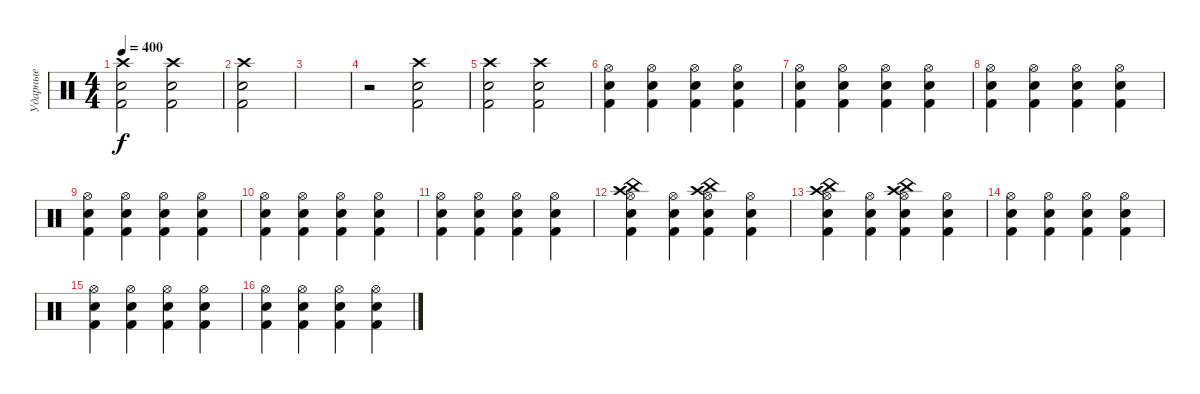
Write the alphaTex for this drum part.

\track ("Ударные" "Ударные") {instrument percussion}
\staff {score}
\articulation defaults
\ts (4 4)
\tempo 400
\clef neutral
\ks c
("Kick (hit) 2" "Electric Snare (hit)" "Crash high (hit)").2{dy f} ("Kick (hit) 2" "Electric Snare (hit)" "Crash high (hit)").2 |
("Kick (hit) 2" "Electric Snare (hit)" "Crash high (hit)").2 |
|
r.2 ("Electric Snare (hit)" "Crash high (hit)" "Kick (hit) 2").2 |
("Crash high (hit)" "Kick (hit) 2" "Electric Snare (hit)").2 ("Electric Snare (hit)" "Kick (hit) 2" "Crash high (hit)").2 |
("Kick (hit) 2" "Hi-Hat (open)" "Electric Snare (hit)").4 ("Hi-Hat (open)" "Kick (hit) 2" "Electric Snare (hit)").4 ("Electric Snare (hit)" "Kick (hit) 2" "Hi-Hat (open)").4 ("Hi-Hat (open)" "Kick (hit) 2" "Electric Snare (hit)").4 |
("Kick (hit) 2" "Hi-Hat (open)" "Electric Snare (hit)").4 ("Hi-Hat (open)" "Kick (hit) 2" "Electric Snare (hit)").4 ("Electric Snare (hit)" "Kick (hit) 2" "Hi-Hat (open)").4 ("Hi-Hat (open)" "Kick (hit) 2" "Electric Snare (hit)").4 |
("Kick (hit) 2" "Hi-Hat (open)" "Electric Snare (hit)").4 ("Hi-Hat (open)" "Kick (hit) 2" "Electric Snare (hit)").4 ("Electric Snare (hit)" "Kick (hit) 2" "Hi-Hat (open)").4 ("Hi-Hat (open)" "Kick (hit) 2" "Electric Snare (hit)").4 |
("Kick (hit) 2" "Hi-Hat (open)" "Electric Snare (hit)").4 ("Hi-Hat (open)" "Kick (hit) 2" "Electric Snare (hit)").4 ("Electric Snare (hit)" "Kick (hit) 2" "Hi-Hat (open)").4 ("Hi-Hat (open)" "Kick (hit) 2" "Electric Snare (hit)").4 |
("Kick (hit) 2" "Hi-Hat (open)" "Electric Snare (hit)").4 ("Hi-Hat (open)" "Kick (hit) 2" "Electric Snare (hit)").4 ("Electric Snare (hit)" "Kick (hit) 2" "Hi-Hat (open)").4 ("Hi-Hat (open)" "Kick (hit) 2" "Electric Snare (hit)").4 |
("Kick (hit) 2" "Hi-Hat (open)" "Electric Snare (hit)").4 ("Hi-Hat (open)" "Kick (hit) 2" "Electric Snare (hit)").4 ("Electric Snare (hit)" "Kick (hit) 2" "Hi-Hat (open)").4 ("Hi-Hat (open)" "Kick (hit) 2" "Electric Snare (hit)").4 |
("Kick (hit) 2" "Hi-Hat (open)" "Crash high (hit)" "China (hit)" "Electric Snare (hit)").4 ("Hi-Hat (open)" "Kick (hit) 2" "Electric Snare (hit)").4 ("Electric Snare (hit)" "Kick (hit) 2" "Hi-Hat (open)" "Crash high (hit)" "China (hit)").4 ("Hi-Hat (open)" "Kick (hit) 2" "Electric Snare (hit)").4 |
("Kick (hit) 2" "Hi-Hat (open)" "Crash high (hit)" "China (hit)" "Electric Snare (hit)").4 ("Hi-Hat (open)" "Kick (hit) 2" "Electric Snare (hit)").4 ("Electric Snare (hit)" "Kick (hit) 2" "Hi-Hat (open)" "Crash high (hit)" "China (hit)").4 ("Hi-Hat (open)" "Kick (hit) 2" "Electric Snare (hit)").4 |
("Kick (hit) 2" "Hi-Hat (open)" "Electric Snare (hit)").4 ("Hi-Hat (open)" "Kick (hit) 2" "Electric Snare (hit)").4 ("Electric Snare (hit)" "Kick (hit) 2" "Hi-Hat (open)").4 ("Hi-Hat (open)" "Kick (hit) 2" "Electric Snare (hit)").4 |
("Kick (hit) 2" "Hi-Hat (open)" "Electric Snare (hit)").4 ("Hi-Hat (open)" "Kick (hit) 2" "Electric Snare (hit)").4 ("Electric Snare (hit)" "Kick (hit) 2" "Hi-Hat (open)").4 ("Hi-Hat (open)" "Kick (hit) 2" "Electric Snare (hit)").4 |
("Kick (hit) 2" "Hi-Hat (open)" "Electric Snare (hit)").4 ("Hi-Hat (open)" "Kick (hit) 2" "Electric Snare (hit)").4 ("Electric Snare (hit)" "Kick (hit) 2" "Hi-Hat (open)").4 ("Hi-Hat (open)" "Kick (hit) 2" "Electric Snare (hit)").4
